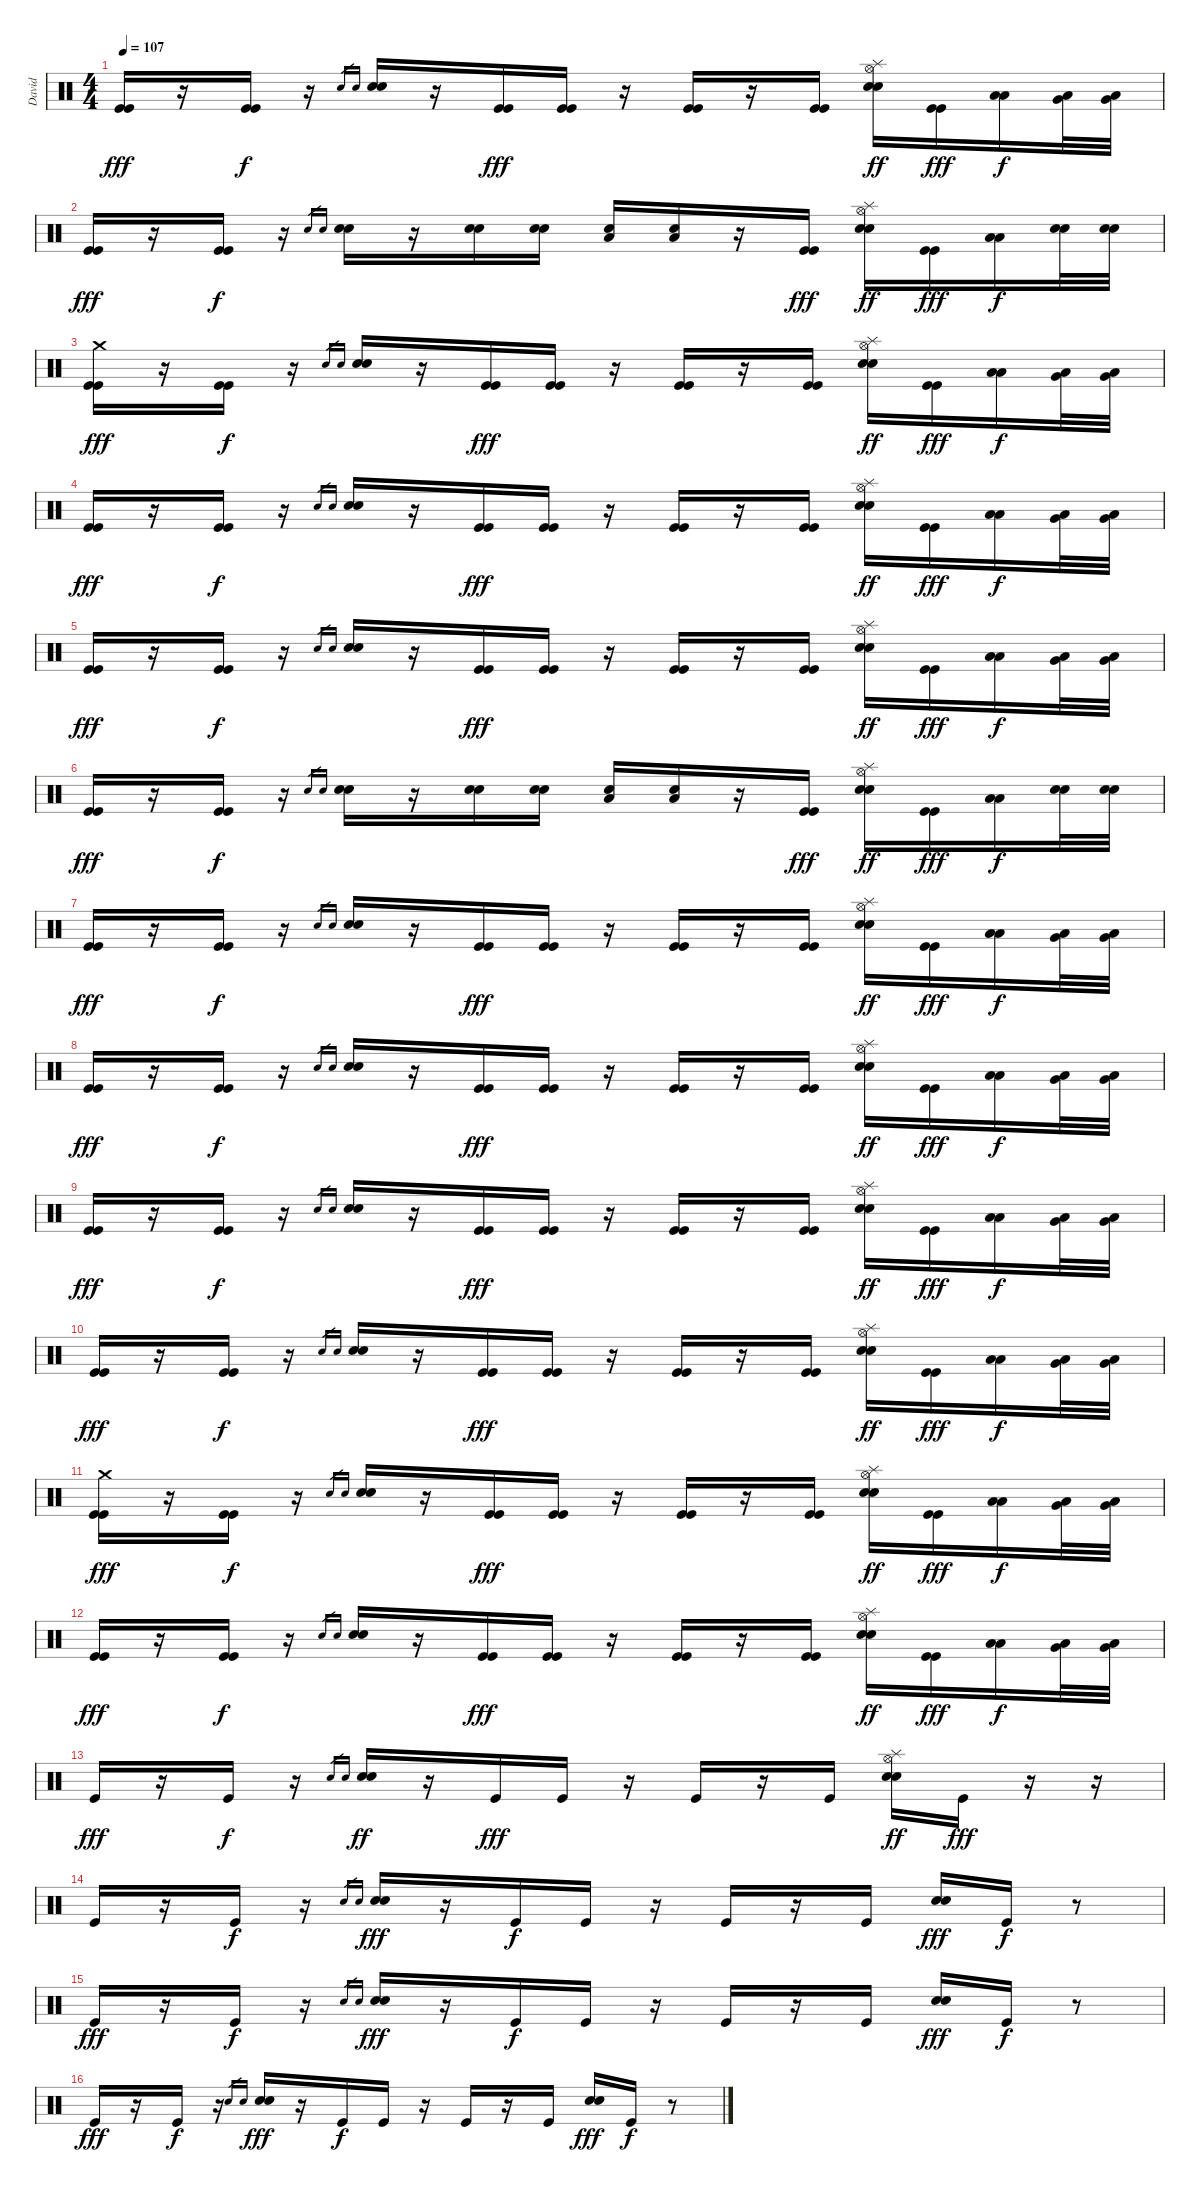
\track ("David" "David") {instrument percussion}
\staff {score}
\articulation defaults
\ts (4 4)
\tempo 107
\clef neutral
\ks c
("Kick (hit)" "Kick (hit)").16{dy fff} r.16 ("Kick (hit)" "Kick (hit)").16{dy f} r.16 "Electric Snare (hit)".16{gr} "Electric Snare (hit)".16{gr} ("Electric Snare (hit)" "Electric Snare (hit)").16 r.16 ("Kick (hit)" "Kick (hit)").16{dy fff} ("Kick (hit)" "Kick (hit)").16 r.16 ("Kick (hit)" "Kick (hit)").16 r.16 ("Kick (hit)" "Kick (hit)").16 ("Splash (hit)" "Hi-Hat (open)" "Electric Snare (hit)" "Electric Snare (hit)").16{dy ff} ("Kick (hit)" "Kick (hit)").16{dy fff} ("Low Floor Tom (hit)" "Low Floor Tom (hit)").16{dy f} ("Low Floor Tom (hit)" "Very Low Tom (hit)").32 ("Very Low Tom (hit)" "Low Tom (hit)").32 |
("Kick (hit)" "Kick (hit)").16{dy fff} r.16 ("Kick (hit)" "Kick (hit)").16{dy f} r.16 "Electric Snare (hit)".16{gr} "Electric Snare (hit)".16{gr} ("Electric Snare (hit)" "Electric Snare (hit)").16 r.16 ("Electric Snare (hit)" "Electric Snare (hit)").16 ("Electric Snare (hit)" "Electric Snare (hit)").16 ("Low Floor Tom (hit)" "Electric Snare (hit)").16 ("Low Floor Tom (hit)" "Electric Snare (hit)").16 r.16 ("Kick (hit)" "Kick (hit)").16{dy fff} ("Splash (hit)" "Hi-Hat (open)" "Electric Snare (hit)" "Electric Snare (hit)").16{dy ff} ("Kick (hit)" "Kick (hit)").16{dy fff} ("Low Floor Tom (hit)" "Low Floor Tom (hit)").16{dy f} ("Electric Snare (hit)" "Electric Snare (hit)").32 ("Electric Snare (hit)" "Electric Snare (hit)").32 |
("Crash medium (hit)" "Kick (hit)" "Kick (hit)").16{dy fff} r.16 ("Kick (hit)" "Kick (hit)").16{dy f} r.16 "Electric Snare (hit)".16{gr} "Electric Snare (hit)".16{gr} ("Electric Snare (hit)" "Electric Snare (hit)").16 r.16 ("Kick (hit)" "Kick (hit)").16{dy fff} ("Kick (hit)" "Kick (hit)").16 r.16 ("Kick (hit)" "Kick (hit)").16 r.16 ("Kick (hit)" "Kick (hit)").16 ("Splash (hit)" "Hi-Hat (open)" "Electric Snare (hit)" "Electric Snare (hit)").16{dy ff} ("Kick (hit)" "Kick (hit)").16{dy fff} ("Low Floor Tom (hit)" "Low Floor Tom (hit)").16{dy f} ("Low Floor Tom (hit)" "Very Low Tom (hit)").32 ("Very Low Tom (hit)" "Low Tom (hit)").32 |
("Kick (hit)" "Kick (hit)").16{dy fff} r.16 ("Kick (hit)" "Kick (hit)").16{dy f} r.16 "Electric Snare (hit)".16{gr} "Electric Snare (hit)".16{gr} ("Electric Snare (hit)" "Electric Snare (hit)").16 r.16 ("Kick (hit)" "Kick (hit)").16{dy fff} ("Kick (hit)" "Kick (hit)").16 r.16 ("Kick (hit)" "Kick (hit)").16 r.16 ("Kick (hit)" "Kick (hit)").16 ("Splash (hit)" "Hi-Hat (open)" "Electric Snare (hit)" "Electric Snare (hit)").16{dy ff} ("Kick (hit)" "Kick (hit)").16{dy fff} ("Low Floor Tom (hit)" "Low Floor Tom (hit)").16{dy f} ("Low Floor Tom (hit)" "Very Low Tom (hit)").32 ("Very Low Tom (hit)" "Low Tom (hit)").32 |
("Kick (hit)" "Kick (hit)").16{dy fff} r.16 ("Kick (hit)" "Kick (hit)").16{dy f} r.16 "Electric Snare (hit)".16{gr} "Electric Snare (hit)".16{gr} ("Electric Snare (hit)" "Electric Snare (hit)").16 r.16 ("Kick (hit)" "Kick (hit)").16{dy fff} ("Kick (hit)" "Kick (hit)").16 r.16 ("Kick (hit)" "Kick (hit)").16 r.16 ("Kick (hit)" "Kick (hit)").16 ("Splash (hit)" "Hi-Hat (open)" "Electric Snare (hit)" "Electric Snare (hit)").16{dy ff} ("Kick (hit)" "Kick (hit)").16{dy fff} ("Low Floor Tom (hit)" "Low Floor Tom (hit)").16{dy f} ("Low Floor Tom (hit)" "Very Low Tom (hit)").32 ("Very Low Tom (hit)" "Low Tom (hit)").32 |
("Kick (hit)" "Kick (hit)").16{dy fff} r.16 ("Kick (hit)" "Kick (hit)").16{dy f} r.16 "Electric Snare (hit)".16{gr} "Electric Snare (hit)".16{gr} ("Electric Snare (hit)" "Electric Snare (hit)").16 r.16 ("Electric Snare (hit)" "Electric Snare (hit)").16 ("Electric Snare (hit)" "Electric Snare (hit)").16 ("Low Floor Tom (hit)" "Electric Snare (hit)").16 ("Low Floor Tom (hit)" "Electric Snare (hit)").16 r.16 ("Kick (hit)" "Kick (hit)").16{dy fff} ("Splash (hit)" "Hi-Hat (open)" "Electric Snare (hit)" "Electric Snare (hit)").16{dy ff} ("Kick (hit)" "Kick (hit)").16{dy fff} ("Low Floor Tom (hit)" "Low Floor Tom (hit)").16{dy f} ("Electric Snare (hit)" "Electric Snare (hit)").32 ("Electric Snare (hit)" "Electric Snare (hit)").32 |
("Kick (hit)" "Kick (hit)").16{dy fff} r.16 ("Kick (hit)" "Kick (hit)").16{dy f} r.16 "Electric Snare (hit)".16{gr} "Electric Snare (hit)".16{gr} ("Electric Snare (hit)" "Electric Snare (hit)").16 r.16 ("Kick (hit)" "Kick (hit)").16{dy fff} ("Kick (hit)" "Kick (hit)").16 r.16 ("Kick (hit)" "Kick (hit)").16 r.16 ("Kick (hit)" "Kick (hit)").16 ("Splash (hit)" "Hi-Hat (open)" "Electric Snare (hit)" "Electric Snare (hit)").16{dy ff} ("Kick (hit)" "Kick (hit)").16{dy fff} ("Low Floor Tom (hit)" "Low Floor Tom (hit)").16{dy f} ("Low Floor Tom (hit)" "Very Low Tom (hit)").32 ("Very Low Tom (hit)" "Low Tom (hit)").32 |
("Kick (hit)" "Kick (hit)").16{dy fff} r.16 ("Kick (hit)" "Kick (hit)").16{dy f} r.16 "Electric Snare (hit)".16{gr} "Electric Snare (hit)".16{gr} ("Electric Snare (hit)" "Electric Snare (hit)").16 r.16 ("Kick (hit)" "Kick (hit)").16{dy fff} ("Kick (hit)" "Kick (hit)").16 r.16 ("Kick (hit)" "Kick (hit)").16 r.16 ("Kick (hit)" "Kick (hit)").16 ("Splash (hit)" "Hi-Hat (open)" "Electric Snare (hit)" "Electric Snare (hit)").16{dy ff} ("Kick (hit)" "Kick (hit)").16{dy fff} ("Low Floor Tom (hit)" "Low Floor Tom (hit)").16{dy f} ("Low Floor Tom (hit)" "Very Low Tom (hit)").32 ("Very Low Tom (hit)" "Low Tom (hit)").32 |
("Kick (hit)" "Kick (hit)").16{dy fff} r.16 ("Kick (hit)" "Kick (hit)").16{dy f} r.16 "Electric Snare (hit)".16{gr} "Electric Snare (hit)".16{gr} ("Electric Snare (hit)" "Electric Snare (hit)").16 r.16 ("Kick (hit)" "Kick (hit)").16{dy fff} ("Kick (hit)" "Kick (hit)").16 r.16 ("Kick (hit)" "Kick (hit)").16 r.16 ("Kick (hit)" "Kick (hit)").16 ("Splash (hit)" "Hi-Hat (open)" "Electric Snare (hit)" "Electric Snare (hit)").16{dy ff} ("Kick (hit)" "Kick (hit)").16{dy fff} ("Low Floor Tom (hit)" "Low Floor Tom (hit)").16{dy f} ("Low Floor Tom (hit)" "Very Low Tom (hit)").32 ("Very Low Tom (hit)" "Low Tom (hit)").32 |
("Kick (hit)" "Kick (hit)").16{dy fff} r.16 ("Kick (hit)" "Kick (hit)").16{dy f} r.16 "Electric Snare (hit)".16{gr} "Electric Snare (hit)".16{gr} ("Electric Snare (hit)" "Electric Snare (hit)").16 r.16 ("Kick (hit)" "Kick (hit)").16{dy fff} ("Kick (hit)" "Kick (hit)").16 r.16 ("Kick (hit)" "Kick (hit)").16 r.16 ("Kick (hit)" "Kick (hit)").16 ("Splash (hit)" "Hi-Hat (open)" "Electric Snare (hit)" "Electric Snare (hit)").16{dy ff} ("Kick (hit)" "Kick (hit)").16{dy fff} ("Low Floor Tom (hit)" "Low Floor Tom (hit)").16{dy f} ("Low Floor Tom (hit)" "Very Low Tom (hit)").32 ("Very Low Tom (hit)" "Low Tom (hit)").32 |
("Crash medium (hit)" "Kick (hit)" "Kick (hit)").16{dy fff} r.16 ("Kick (hit)" "Kick (hit)").16{dy f} r.16 "Electric Snare (hit)".16{gr} "Electric Snare (hit)".16{gr} ("Electric Snare (hit)" "Electric Snare (hit)").16 r.16 ("Kick (hit)" "Kick (hit)").16{dy fff} ("Kick (hit)" "Kick (hit)").16 r.16 ("Kick (hit)" "Kick (hit)").16 r.16 ("Kick (hit)" "Kick (hit)").16 ("Splash (hit)" "Hi-Hat (open)" "Electric Snare (hit)" "Electric Snare (hit)").16{dy ff} ("Kick (hit)" "Kick (hit)").16{dy fff} ("Low Floor Tom (hit)" "Low Floor Tom (hit)").16{dy f} ("Low Floor Tom (hit)" "Very Low Tom (hit)").32 ("Very Low Tom (hit)" "Low Tom (hit)").32 |
("Kick (hit)" "Kick (hit)").16{dy fff} r.16 ("Kick (hit)" "Kick (hit)").16{dy f} r.16 "Electric Snare (hit)".16{gr} "Electric Snare (hit)".16{gr} ("Electric Snare (hit)" "Electric Snare (hit)").16 r.16 ("Kick (hit)" "Kick (hit)").16{dy fff} ("Kick (hit)" "Kick (hit)").16 r.16 ("Kick (hit)" "Kick (hit)").16 r.16 ("Kick (hit)" "Kick (hit)").16 ("Splash (hit)" "Hi-Hat (open)" "Electric Snare (hit)" "Electric Snare (hit)").16{dy ff} ("Kick (hit)" "Kick (hit)").16{dy fff} ("Low Floor Tom (hit)" "Low Floor Tom (hit)").16{dy f} ("Low Floor Tom (hit)" "Very Low Tom (hit)").32 ("Very Low Tom (hit)" "Low Tom (hit)").32 |
"Kick (hit)".16{dy fff} r.16 "Kick (hit)".16{dy f} r.16 "Electric Snare (hit)".16{gr} "Electric Snare (hit)".16{gr} ("Electric Snare (hit)" "Electric Snare (hit)").16{dy ff} r.16 "Kick (hit)".16{dy fff} "Kick (hit)".16 r.16 "Kick (hit)".16 r.16 "Kick (hit)".16 ("Splash (hit)" "Hi-Hat (open)" "Electric Snare (hit)" "Electric Snare (hit)").16{dy ff} "Kick (hit)".16{dy fff} r.16 r.16 |
"Kick (hit)".16 r.16 "Kick (hit)".16{dy f} r.16 "Electric Snare (hit)".16{gr} "Electric Snare (hit)".16{gr} ("Electric Snare (hit)" "Electric Snare (hit)").16{dy fff} r.16 "Kick (hit)".16{dy f} "Kick (hit)".16 r.16 "Kick (hit)".16 r.16 "Kick (hit)".16 ("Electric Snare (hit)" "Electric Snare (hit)").16{dy fff} "Kick (hit)".16{dy f} r.8 |
"Kick (hit)".16{dy fff} r.16 "Kick (hit)".16{dy f} r.16 "Electric Snare (hit)".16{gr} "Electric Snare (hit)".16{gr} ("Electric Snare (hit)" "Electric Snare (hit)").16{dy fff} r.16 "Kick (hit)".16{dy f} "Kick (hit)".16 r.16 "Kick (hit)".16 r.16 "Kick (hit)".16 ("Electric Snare (hit)" "Electric Snare (hit)").16{dy fff} "Kick (hit)".16{dy f} r.8 |
"Kick (hit)".16{dy fff} r.16 "Kick (hit)".16{dy f} r.16 "Electric Snare (hit)".16{gr} "Electric Snare (hit)".16{gr} ("Electric Snare (hit)" "Electric Snare (hit)").16{dy fff} r.16 "Kick (hit)".16{dy f} "Kick (hit)".16 r.16 "Kick (hit)".16 r.16 "Kick (hit)".16 ("Electric Snare (hit)" "Electric Snare (hit)").16{dy fff} "Kick (hit)".16{dy f} r.8
